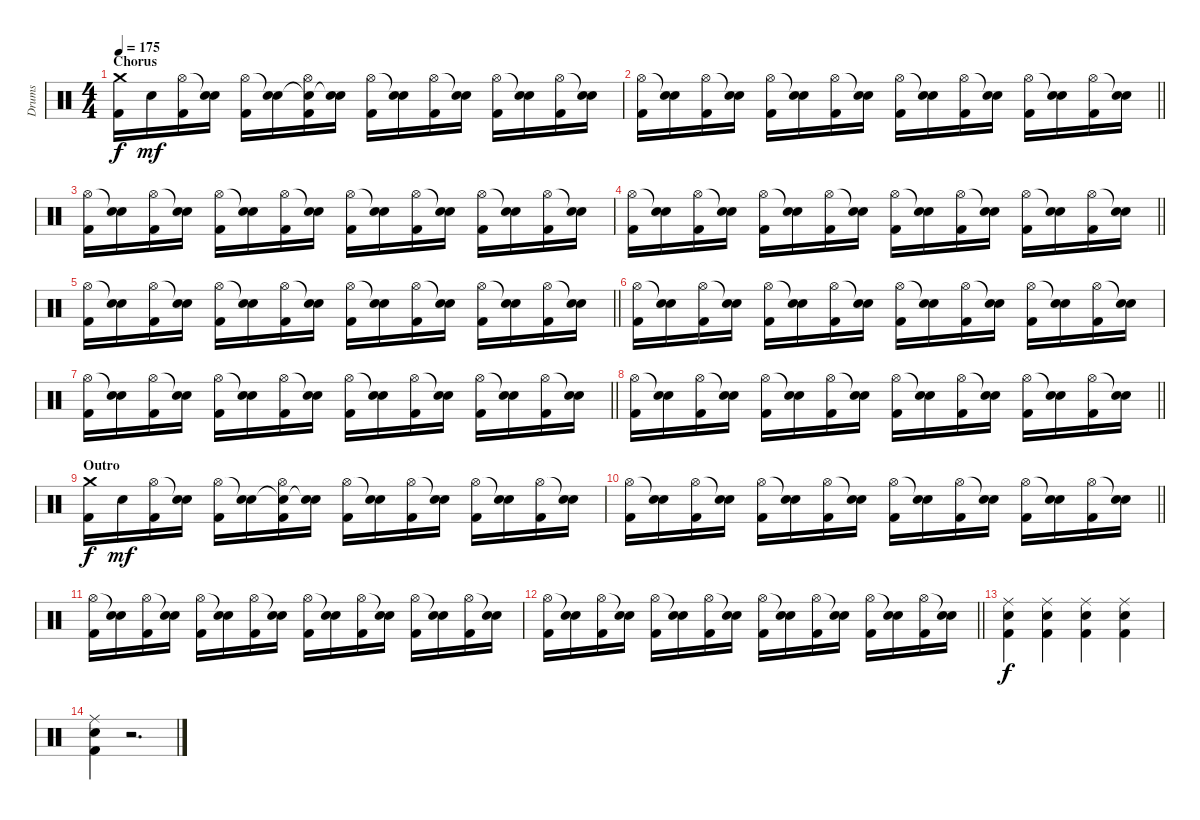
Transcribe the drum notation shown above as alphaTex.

\track ("Drums" "Drums") {instrument percussion}
\staff {score}
\articulation defaults
\ts (4 4)
\section ("" "Chorus")
\tempo 175
\clef neutral
\ks c
("Crash medium (hit)" "Kick (hit) 2").16{dy f} "Electric Snare (hit)".16{dy mf} ("Hi-Hat (open)" "Kick (hit) 2").16 ("Snare (hit)"{t} "Electric Snare (hit)").16 ("Hi-Hat (open)" "Kick (hit) 2").16 ("Snare (hit)"{t} "Electric Snare (hit)").16 ("Snare (hit)"{t} "Hi-Hat (open)" "Kick (hit) 2").16 ("Snare (hit)"{t} "Electric Snare (hit)").16 ("Hi-Hat (open)" "Kick (hit) 2").16 ("Snare (hit)"{t} "Electric Snare (hit)").16 ("Hi-Hat (open)" "Kick (hit) 2").16 ("Snare (hit)"{t} "Electric Snare (hit)").16 ("Hi-Hat (open)" "Kick (hit) 2").16 ("Snare (hit)"{t} "Electric Snare (hit)").16 ("Hi-Hat (open)" "Kick (hit) 2").16 ("Snare (hit)"{t} "Electric Snare (hit)").16 |
\barLineRight lightlight
("Hi-Hat (open)" "Kick (hit) 2").16 ("Snare (hit)"{t} "Electric Snare (hit)").16 ("Hi-Hat (open)" "Kick (hit) 2").16 ("Snare (hit)"{t} "Electric Snare (hit)").16 ("Hi-Hat (open)" "Kick (hit) 2").16 ("Snare (hit)"{t} "Electric Snare (hit)").16 ("Hi-Hat (open)" "Kick (hit) 2").16 ("Snare (hit)"{t} "Electric Snare (hit)").16 ("Hi-Hat (open)" "Kick (hit) 2").16 ("Snare (hit)"{t} "Electric Snare (hit)").16 ("Hi-Hat (open)" "Kick (hit) 2").16 ("Snare (hit)"{t} "Electric Snare (hit)").16 ("Hi-Hat (open)" "Kick (hit) 2").16 ("Snare (hit)"{t} "Electric Snare (hit)").16 ("Hi-Hat (open)" "Kick (hit) 2").16 ("Snare (hit)"{t} "Electric Snare (hit)").16 |
("Hi-Hat (open)" "Kick (hit) 2").16 ("Snare (hit)"{t} "Electric Snare (hit)").16 ("Hi-Hat (open)" "Kick (hit) 2").16 ("Snare (hit)"{t} "Electric Snare (hit)").16 ("Hi-Hat (open)" "Kick (hit) 2").16 ("Snare (hit)"{t} "Electric Snare (hit)").16 ("Hi-Hat (open)" "Kick (hit) 2").16 ("Snare (hit)"{t} "Electric Snare (hit)").16 ("Hi-Hat (open)" "Kick (hit) 2").16 ("Snare (hit)"{t} "Electric Snare (hit)").16 ("Hi-Hat (open)" "Kick (hit) 2").16 ("Snare (hit)"{t} "Electric Snare (hit)").16 ("Hi-Hat (open)" "Kick (hit) 2").16 ("Snare (hit)"{t} "Electric Snare (hit)").16 ("Hi-Hat (open)" "Kick (hit) 2").16 ("Snare (hit)"{t} "Electric Snare (hit)").16 |
\barLineRight lightlight
("Hi-Hat (open)" "Kick (hit) 2").16 ("Snare (hit)"{t} "Electric Snare (hit)").16 ("Hi-Hat (open)" "Kick (hit) 2").16 ("Snare (hit)"{t} "Electric Snare (hit)").16 ("Hi-Hat (open)" "Kick (hit) 2").16 ("Snare (hit)"{t} "Electric Snare (hit)").16 ("Hi-Hat (open)" "Kick (hit) 2").16 ("Snare (hit)"{t} "Electric Snare (hit)").16 ("Hi-Hat (open)" "Kick (hit) 2").16 ("Snare (hit)"{t} "Electric Snare (hit)").16 ("Hi-Hat (open)" "Kick (hit) 2").16 ("Snare (hit)"{t} "Electric Snare (hit)").16 ("Hi-Hat (open)" "Kick (hit) 2").16 ("Snare (hit)"{t} "Electric Snare (hit)").16 ("Hi-Hat (open)" "Kick (hit) 2").16 ("Snare (hit)"{t} "Electric Snare (hit)").16 |
\barLineRight lightlight
("Hi-Hat (open)" "Kick (hit) 2").16 ("Snare (hit)"{t} "Electric Snare (hit)").16 ("Hi-Hat (open)" "Kick (hit) 2").16 ("Snare (hit)"{t} "Electric Snare (hit)").16 ("Hi-Hat (open)" "Kick (hit) 2").16 ("Snare (hit)"{t} "Electric Snare (hit)").16 ("Hi-Hat (open)" "Kick (hit) 2").16 ("Snare (hit)"{t} "Electric Snare (hit)").16 ("Hi-Hat (open)" "Kick (hit) 2").16 ("Snare (hit)"{t} "Electric Snare (hit)").16 ("Hi-Hat (open)" "Kick (hit) 2").16 ("Snare (hit)"{t} "Electric Snare (hit)").16 ("Hi-Hat (open)" "Kick (hit) 2").16 ("Snare (hit)"{t} "Electric Snare (hit)").16 ("Hi-Hat (open)" "Kick (hit) 2").16 ("Snare (hit)"{t} "Electric Snare (hit)").16 |
("Hi-Hat (open)" "Kick (hit) 2").16 ("Snare (hit)"{t} "Electric Snare (hit)").16 ("Hi-Hat (open)" "Kick (hit) 2").16 ("Snare (hit)"{t} "Electric Snare (hit)").16 ("Hi-Hat (open)" "Kick (hit) 2").16 ("Snare (hit)"{t} "Electric Snare (hit)").16 ("Hi-Hat (open)" "Kick (hit) 2").16 ("Snare (hit)"{t} "Electric Snare (hit)").16 ("Hi-Hat (open)" "Kick (hit) 2").16 ("Snare (hit)"{t} "Electric Snare (hit)").16 ("Hi-Hat (open)" "Kick (hit) 2").16 ("Snare (hit)"{t} "Electric Snare (hit)").16 ("Hi-Hat (open)" "Kick (hit) 2").16 ("Snare (hit)"{t} "Electric Snare (hit)").16 ("Hi-Hat (open)" "Kick (hit) 2").16 ("Snare (hit)"{t} "Electric Snare (hit)").16 |
\barLineRight lightlight
("Hi-Hat (open)" "Kick (hit) 2").16 ("Snare (hit)"{t} "Electric Snare (hit)").16 ("Hi-Hat (open)" "Kick (hit) 2").16 ("Snare (hit)"{t} "Electric Snare (hit)").16 ("Hi-Hat (open)" "Kick (hit) 2").16 ("Snare (hit)"{t} "Electric Snare (hit)").16 ("Hi-Hat (open)" "Kick (hit) 2").16 ("Snare (hit)"{t} "Electric Snare (hit)").16 ("Hi-Hat (open)" "Kick (hit) 2").16 ("Snare (hit)"{t} "Electric Snare (hit)").16 ("Hi-Hat (open)" "Kick (hit) 2").16 ("Snare (hit)"{t} "Electric Snare (hit)").16 ("Hi-Hat (open)" "Kick (hit) 2").16 ("Snare (hit)"{t} "Electric Snare (hit)").16 ("Hi-Hat (open)" "Kick (hit) 2").16 ("Snare (hit)"{t} "Electric Snare (hit)").16 |
\barLineRight lightlight
("Hi-Hat (open)" "Kick (hit) 2").16 ("Snare (hit)"{t} "Electric Snare (hit)").16 ("Hi-Hat (open)" "Kick (hit) 2").16 ("Snare (hit)"{t} "Electric Snare (hit)").16 ("Hi-Hat (open)" "Kick (hit) 2").16 ("Snare (hit)"{t} "Electric Snare (hit)").16 ("Hi-Hat (open)" "Kick (hit) 2").16 ("Snare (hit)"{t} "Electric Snare (hit)").16 ("Hi-Hat (open)" "Kick (hit) 2").16 ("Snare (hit)"{t} "Electric Snare (hit)").16 ("Hi-Hat (open)" "Kick (hit) 2").16 ("Snare (hit)"{t} "Electric Snare (hit)").16 ("Hi-Hat (open)" "Kick (hit) 2").16 ("Snare (hit)"{t} "Electric Snare (hit)").16 ("Hi-Hat (open)" "Kick (hit) 2").16 ("Snare (hit)"{t} "Electric Snare (hit)").16 |
\section ("" "Outro")
("Crash medium (hit)" "Kick (hit) 2").16{dy f} "Electric Snare (hit)".16{dy mf} ("Hi-Hat (open)" "Kick (hit) 2").16 ("Snare (hit)"{t} "Electric Snare (hit)").16 ("Hi-Hat (open)" "Kick (hit) 2").16 ("Snare (hit)"{t} "Electric Snare (hit)").16 ("Snare (hit)"{t} "Hi-Hat (open)" "Kick (hit) 2").16 ("Snare (hit)"{t} "Electric Snare (hit)").16 ("Hi-Hat (open)" "Kick (hit) 2").16 ("Snare (hit)"{t} "Electric Snare (hit)").16 ("Hi-Hat (open)" "Kick (hit) 2").16 ("Snare (hit)"{t} "Electric Snare (hit)").16 ("Hi-Hat (open)" "Kick (hit) 2").16 ("Snare (hit)"{t} "Electric Snare (hit)").16 ("Hi-Hat (open)" "Kick (hit) 2").16 ("Snare (hit)"{t} "Electric Snare (hit)").16 |
\barLineRight lightlight
("Hi-Hat (open)" "Kick (hit) 2").16 ("Snare (hit)"{t} "Electric Snare (hit)").16 ("Hi-Hat (open)" "Kick (hit) 2").16 ("Snare (hit)"{t} "Electric Snare (hit)").16 ("Hi-Hat (open)" "Kick (hit) 2").16 ("Snare (hit)"{t} "Electric Snare (hit)").16 ("Hi-Hat (open)" "Kick (hit) 2").16 ("Snare (hit)"{t} "Electric Snare (hit)").16 ("Hi-Hat (open)" "Kick (hit) 2").16 ("Snare (hit)"{t} "Electric Snare (hit)").16 ("Hi-Hat (open)" "Kick (hit) 2").16 ("Snare (hit)"{t} "Electric Snare (hit)").16 ("Hi-Hat (open)" "Kick (hit) 2").16 ("Snare (hit)"{t} "Electric Snare (hit)").16 ("Hi-Hat (open)" "Kick (hit) 2").16 ("Snare (hit)"{t} "Electric Snare (hit)").16 |
("Hi-Hat (open)" "Kick (hit) 2").16 ("Snare (hit)"{t} "Electric Snare (hit)").16 ("Hi-Hat (open)" "Kick (hit) 2").16 ("Snare (hit)"{t} "Electric Snare (hit)").16 ("Hi-Hat (open)" "Kick (hit) 2").16 ("Snare (hit)"{t} "Electric Snare (hit)").16 ("Hi-Hat (open)" "Kick (hit) 2").16 ("Snare (hit)"{t} "Electric Snare (hit)").16 ("Hi-Hat (open)" "Kick (hit) 2").16 ("Snare (hit)"{t} "Electric Snare (hit)").16 ("Hi-Hat (open)" "Kick (hit) 2").16 ("Snare (hit)"{t} "Electric Snare (hit)").16 ("Hi-Hat (open)" "Kick (hit) 2").16 ("Snare (hit)"{t} "Electric Snare (hit)").16 ("Hi-Hat (open)" "Kick (hit) 2").16 ("Snare (hit)"{t} "Electric Snare (hit)").16 |
\barLineRight lightlight
("Hi-Hat (open)" "Kick (hit) 2").16 ("Snare (hit)"{t} "Electric Snare (hit)").16 ("Hi-Hat (open)" "Kick (hit) 2").16 ("Snare (hit)"{t} "Electric Snare (hit)").16 ("Hi-Hat (open)" "Kick (hit) 2").16 ("Snare (hit)"{t} "Electric Snare (hit)").16 ("Hi-Hat (open)" "Kick (hit) 2").16 ("Snare (hit)"{t} "Electric Snare (hit)").16 ("Hi-Hat (open)" "Kick (hit) 2").16 ("Snare (hit)"{t} "Electric Snare (hit)").16 ("Hi-Hat (open)" "Kick (hit) 2").16 ("Snare (hit)"{t} "Electric Snare (hit)").16 ("Hi-Hat (open)" "Kick (hit) 2").16 ("Snare (hit)"{t} "Electric Snare (hit)").16 ("Hi-Hat (open)" "Kick (hit) 2").16 ("Snare (hit)"{t} "Electric Snare (hit)").16 |
("Ride (middle)" "Snare (hit) 2" "Kick (hit) 2").4{dy f} ("Ride (middle)" "Snare (hit) 2" "Kick (hit) 2").4 ("Ride (middle)" "Snare (hit) 2" "Kick (hit) 2").4 ("Ride (middle)" "Snare (hit) 2" "Kick (hit) 2").4 |
("Ride (middle)" "Snare (hit) 2" "Kick (hit) 2").4 r.2{d}
